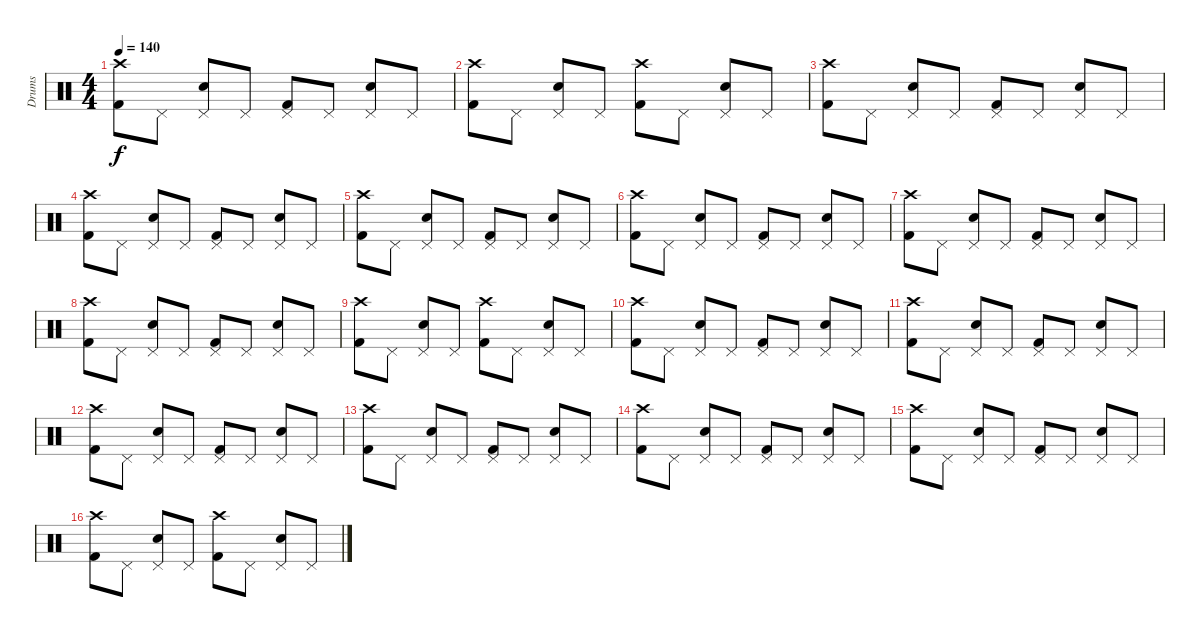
\track ("Drums" "Drums") {instrument percussion}
\staff {score}
\articulation defaults
\ts (4 4)
\tempo 140
\clef neutral
\ks c
("Crash high (hit)" "Kick (hit) 2").8{dy f} "Pedal Hi-Hat (hit)".8 ("Pedal Hi-Hat (hit)" "Snare (hit) 2").8 "Pedal Hi-Hat (hit)".8 ("Pedal Hi-Hat (hit)" "Kick (hit) 2").8 "Pedal Hi-Hat (hit)".8 ("Pedal Hi-Hat (hit)" "Snare (hit) 2").8 "Pedal Hi-Hat (hit)".8 |
("Crash high (hit)" "Kick (hit) 2").8 "Pedal Hi-Hat (hit)".8 ("Pedal Hi-Hat (hit)" "Snare (hit) 2").8 "Pedal Hi-Hat (hit)".8 ("Crash high (hit)" "Kick (hit) 2").8 "Pedal Hi-Hat (hit)".8 ("Pedal Hi-Hat (hit)" "Snare (hit) 2").8 "Pedal Hi-Hat (hit)".8 |
("Crash high (hit)" "Kick (hit) 2").8 "Pedal Hi-Hat (hit)".8 ("Pedal Hi-Hat (hit)" "Snare (hit) 2").8 "Pedal Hi-Hat (hit)".8 ("Pedal Hi-Hat (hit)" "Kick (hit) 2").8 "Pedal Hi-Hat (hit)".8 ("Pedal Hi-Hat (hit)" "Snare (hit) 2").8 "Pedal Hi-Hat (hit)".8 |
("Crash high (hit)" "Kick (hit) 2").8 "Pedal Hi-Hat (hit)".8 ("Pedal Hi-Hat (hit)" "Snare (hit) 2").8 "Pedal Hi-Hat (hit)".8 ("Pedal Hi-Hat (hit)" "Kick (hit) 2").8 "Pedal Hi-Hat (hit)".8 ("Pedal Hi-Hat (hit)" "Snare (hit) 2").8 "Pedal Hi-Hat (hit)".8 |
("Crash high (hit)" "Kick (hit) 2").8 "Pedal Hi-Hat (hit)".8 ("Pedal Hi-Hat (hit)" "Snare (hit) 2").8 "Pedal Hi-Hat (hit)".8 ("Pedal Hi-Hat (hit)" "Kick (hit) 2").8 "Pedal Hi-Hat (hit)".8 ("Pedal Hi-Hat (hit)" "Snare (hit) 2").8 "Pedal Hi-Hat (hit)".8 |
("Crash high (hit)" "Kick (hit) 2").8 "Pedal Hi-Hat (hit)".8 ("Pedal Hi-Hat (hit)" "Snare (hit) 2").8 "Pedal Hi-Hat (hit)".8 ("Pedal Hi-Hat (hit)" "Kick (hit) 2").8 "Pedal Hi-Hat (hit)".8 ("Pedal Hi-Hat (hit)" "Snare (hit) 2").8 "Pedal Hi-Hat (hit)".8 |
("Crash high (hit)" "Kick (hit) 2").8 "Pedal Hi-Hat (hit)".8 ("Pedal Hi-Hat (hit)" "Snare (hit) 2").8 "Pedal Hi-Hat (hit)".8 ("Pedal Hi-Hat (hit)" "Kick (hit) 2").8 "Pedal Hi-Hat (hit)".8 ("Pedal Hi-Hat (hit)" "Snare (hit) 2").8 "Pedal Hi-Hat (hit)".8 |
("Crash high (hit)" "Kick (hit) 2").8 "Pedal Hi-Hat (hit)".8 ("Pedal Hi-Hat (hit)" "Snare (hit) 2").8 "Pedal Hi-Hat (hit)".8 ("Pedal Hi-Hat (hit)" "Kick (hit) 2").8 "Pedal Hi-Hat (hit)".8 ("Pedal Hi-Hat (hit)" "Snare (hit) 2").8 "Pedal Hi-Hat (hit)".8 |
("Crash high (hit)" "Kick (hit) 2").8 "Pedal Hi-Hat (hit)".8 ("Pedal Hi-Hat (hit)" "Snare (hit) 2").8 "Pedal Hi-Hat (hit)".8 ("Crash high (hit)" "Kick (hit) 2").8 "Pedal Hi-Hat (hit)".8 ("Pedal Hi-Hat (hit)" "Snare (hit) 2").8 "Pedal Hi-Hat (hit)".8 |
("Crash high (hit)" "Kick (hit) 2").8 "Pedal Hi-Hat (hit)".8 ("Pedal Hi-Hat (hit)" "Snare (hit) 2").8 "Pedal Hi-Hat (hit)".8 ("Pedal Hi-Hat (hit)" "Kick (hit) 2").8 "Pedal Hi-Hat (hit)".8 ("Pedal Hi-Hat (hit)" "Snare (hit) 2").8 "Pedal Hi-Hat (hit)".8 |
("Crash high (hit)" "Kick (hit) 2").8 "Pedal Hi-Hat (hit)".8 ("Pedal Hi-Hat (hit)" "Snare (hit) 2").8 "Pedal Hi-Hat (hit)".8 ("Pedal Hi-Hat (hit)" "Kick (hit) 2").8 "Pedal Hi-Hat (hit)".8 ("Pedal Hi-Hat (hit)" "Snare (hit) 2").8 "Pedal Hi-Hat (hit)".8 |
("Crash high (hit)" "Kick (hit) 2").8 "Pedal Hi-Hat (hit)".8 ("Pedal Hi-Hat (hit)" "Snare (hit) 2").8 "Pedal Hi-Hat (hit)".8 ("Pedal Hi-Hat (hit)" "Kick (hit) 2").8 "Pedal Hi-Hat (hit)".8 ("Pedal Hi-Hat (hit)" "Snare (hit) 2").8 "Pedal Hi-Hat (hit)".8 |
("Crash high (hit)" "Kick (hit) 2").8{volume 14} "Pedal Hi-Hat (hit)".8 ("Pedal Hi-Hat (hit)" "Snare (hit) 2").8 "Pedal Hi-Hat (hit)".8 ("Pedal Hi-Hat (hit)" "Kick (hit) 2").8{volume 12} "Pedal Hi-Hat (hit)".8 ("Pedal Hi-Hat (hit)" "Snare (hit) 2").8 "Pedal Hi-Hat (hit)".8 |
("Crash high (hit)" "Kick (hit) 2").8 "Pedal Hi-Hat (hit)".8 ("Pedal Hi-Hat (hit)" "Snare (hit) 2").8 "Pedal Hi-Hat (hit)".8 ("Pedal Hi-Hat (hit)" "Kick (hit) 2").8 "Pedal Hi-Hat (hit)".8 ("Pedal Hi-Hat (hit)" "Snare (hit) 2").8 "Pedal Hi-Hat (hit)".8 |
("Crash high (hit)" "Kick (hit) 2").8{volume 10} "Pedal Hi-Hat (hit)".8 ("Pedal Hi-Hat (hit)" "Snare (hit) 2").8 "Pedal Hi-Hat (hit)".8 ("Pedal Hi-Hat (hit)" "Kick (hit) 2").8 "Pedal Hi-Hat (hit)".8 ("Pedal Hi-Hat (hit)" "Snare (hit) 2").8 "Pedal Hi-Hat (hit)".8 |
("Crash high (hit)" "Kick (hit) 2").8 "Pedal Hi-Hat (hit)".8 ("Pedal Hi-Hat (hit)" "Snare (hit) 2").8 "Pedal Hi-Hat (hit)".8 ("Crash high (hit)" "Kick (hit) 2").8 "Pedal Hi-Hat (hit)".8 ("Pedal Hi-Hat (hit)" "Snare (hit) 2").8 "Pedal Hi-Hat (hit)".8
